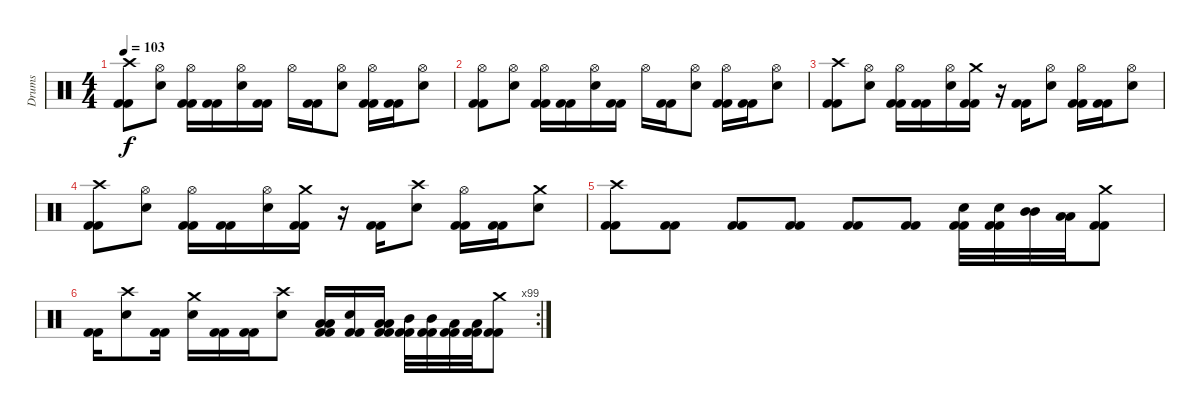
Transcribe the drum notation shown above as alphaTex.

\track ("Drums" "Drums") {instrument percussion}
\staff {score}
\articulation defaults
\ts (4 4)
\tempo 103
\clef neutral
\ks c
("Crash high (hit)" "Kick (hit) 2" "Kick (hit) 2").8{dy f} ("Hi-Hat (open)" "Electric Snare (hit)").8 ("Hi-Hat (open)" "Kick (hit) 2" "Kick (hit) 2").16 ("Kick (hit) 2" "Kick (hit) 2").16 ("Hi-Hat (open)" "Electric Snare (hit)").16 ("Kick (hit) 2" "Kick (hit) 2").16 "Hi-Hat (open)".16 ("Kick (hit) 2" "Kick (hit) 2").16 ("Hi-Hat (open)" "Electric Snare (hit)").8 ("Hi-Hat (open)" "Kick (hit) 2" "Kick (hit) 2").16 ("Kick (hit) 2" "Kick (hit) 2").16 ("Hi-Hat (open)" "Electric Snare (hit)").8 |
("Hi-Hat (open)" "Kick (hit) 2" "Kick (hit) 2").8 ("Hi-Hat (open)" "Electric Snare (hit)").8 ("Hi-Hat (open)" "Kick (hit) 2" "Kick (hit) 2").16 ("Kick (hit) 2" "Kick (hit) 2").16 ("Hi-Hat (open)" "Electric Snare (hit)").16 ("Kick (hit) 2" "Kick (hit) 2").16 "Hi-Hat (open)".16 ("Kick (hit) 2" "Kick (hit) 2").16 ("Hi-Hat (open)" "Electric Snare (hit)").8 ("Hi-Hat (open)" "Kick (hit) 2" "Kick (hit) 2").16 ("Kick (hit) 2" "Kick (hit) 2").16 ("Hi-Hat (open)" "Electric Snare (hit)").8 |
("Crash high (hit)" "Kick (hit) 2" "Kick (hit) 2").8 ("Hi-Hat (open)" "Electric Snare (hit)").8 ("Hi-Hat (open)" "Kick (hit) 2" "Kick (hit) 2").16 ("Kick (hit) 2" "Kick (hit) 2").16 ("Hi-Hat (open)" "Electric Snare (hit)").16 ("Crash medium (hit)" "Kick (hit) 2" "Kick (hit) 2").16 r.16 ("Kick (hit) 2" "Kick (hit) 2").16 ("Hi-Hat (open)" "Electric Snare (hit)").8 ("Hi-Hat (open)" "Kick (hit) 2" "Kick (hit) 2").16 ("Kick (hit) 2" "Kick (hit) 2").16 ("Hi-Hat (open)" "Electric Snare (hit)").8 |
("Crash high (hit)" "Kick (hit) 2" "Kick (hit) 2").8 ("Hi-Hat (open)" "Electric Snare (hit)").8 ("Hi-Hat (open)" "Kick (hit) 2" "Kick (hit) 2").16 ("Kick (hit) 2" "Kick (hit) 2").16 ("Hi-Hat (open)" "Electric Snare (hit)").16 ("Crash medium (hit)" "Kick (hit) 2" "Kick (hit) 2").16 r.16 ("Kick (hit) 2" "Kick (hit) 2").16 ("Crash high (hit)" "Electric Snare (hit)").8 ("Hi-Hat (open)" "Kick (hit) 2" "Kick (hit) 2").16 ("Kick (hit) 2" "Kick (hit) 2").16 ("Crash medium (hit)" "Electric Snare (hit)").8 |
("Crash high (hit)" "Kick (hit) 2" "Kick (hit) 2").8 ("Kick (hit) 2" "Kick (hit) 2").8 ("Kick (hit) 2" "Kick (hit) 2").8 ("Kick (hit) 2" "Kick (hit) 2").8 ("Kick (hit) 2" "Kick (hit) 2").8 ("Kick (hit) 2" "Kick (hit) 2").8 ("Electric Snare (hit)" "Kick (hit) 2" "Kick (hit) 2").32 ("Electric Snare (hit)" "Kick (hit) 2" "Kick (hit) 2").32 ("Mid Tom (hit)" "Mid Tom (hit)").32 ("Low Tom (hit)" "Low Tom (hit)").32 ("Crash medium (hit)" "Kick (hit) 2" "Kick (hit) 2").8 |
\rc 99
("Kick (hit) 2" "Kick (hit) 2").16 ("Crash high (hit)" "Electric Snare (hit)").8 ("Kick (hit) 2" "Kick (hit) 2").16 ("Crash medium (hit)" "Electric Snare (hit)").16 ("Kick (hit) 2" "Kick (hit) 2").16 ("Kick (hit) 2" "Kick (hit) 2").16 ("Crash high (hit)" "Electric Snare (hit)").8 ("Low Tom (hit)" "Low Tom (hit)" "Kick (hit) 2" "Kick (hit) 2").16 ("Electric Snare (hit)" "Kick (hit) 2" "Kick (hit) 2").16 ("Low Tom (hit)" "Low Tom (hit)" "Kick (hit) 2" "Kick (hit) 2").16 ("Mid Tom (hit)" "Kick (hit) 2" "Kick (hit) 2").32 ("Mid Tom (hit)" "Kick (hit) 2" "Kick (hit) 2").32 ("Low Tom (hit)" "Kick (hit) 2" "Kick (hit) 2").32 ("Low Tom (hit)" "Kick (hit) 2" "Kick (hit) 2").32 ("Crash medium (hit)" "Kick (hit) 2" "Kick (hit) 2").8
